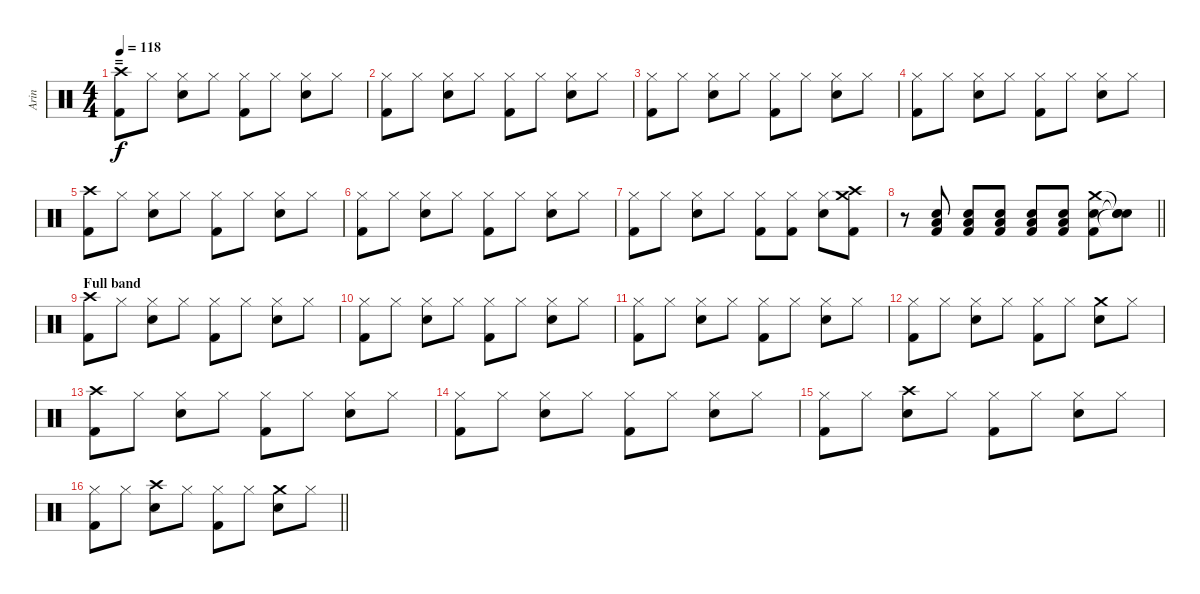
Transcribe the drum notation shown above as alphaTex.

\track ("Arin" "Arin") {instrument percussion}
\staff {score}
\articulation defaults
\ts (4 4)
\section ("" "=")
\tempo 118
\clef neutral
\ks c
("Crash high (hit)" "Kick (hit) 2").8{dy f} "Hi-Hat (closed)".8 ("Hi-Hat (closed)" "Electric Snare (hit)").8 "Hi-Hat (closed)".8 ("Hi-Hat (closed)" "Kick (hit) 2").8 "Hi-Hat (closed)".8 ("Hi-Hat (closed)" "Electric Snare (hit)").8 "Hi-Hat (closed)".8 |
("Hi-Hat (closed)" "Kick (hit) 2").8 "Hi-Hat (closed)".8 ("Hi-Hat (closed)" "Electric Snare (hit)").8 "Hi-Hat (closed)".8 ("Hi-Hat (closed)" "Kick (hit) 2").8 "Hi-Hat (closed)".8 ("Hi-Hat (closed)" "Electric Snare (hit)").8 "Hi-Hat (closed)".8 |
("Hi-Hat (closed)" "Kick (hit) 2").8 "Hi-Hat (closed)".8 ("Hi-Hat (closed)" "Electric Snare (hit)").8 "Hi-Hat (closed)".8 ("Hi-Hat (closed)" "Kick (hit) 2").8 "Hi-Hat (closed)".8 ("Hi-Hat (closed)" "Electric Snare (hit)").8 "Hi-Hat (closed)".8 |
("Hi-Hat (closed)" "Kick (hit) 2").8 "Hi-Hat (closed)".8 ("Hi-Hat (closed)" "Electric Snare (hit)").8 "Hi-Hat (closed)".8 ("Hi-Hat (closed)" "Kick (hit) 2").8 "Hi-Hat (closed)".8 ("Hi-Hat (closed)" "Electric Snare (hit)").8 "Hi-Hat (closed)".8 |
("Crash high (hit)" "Kick (hit) 2").8 "Hi-Hat (closed)".8 ("Hi-Hat (closed)" "Electric Snare (hit)").8 "Hi-Hat (closed)".8 ("Hi-Hat (closed)" "Kick (hit) 2").8 "Hi-Hat (closed)".8 ("Hi-Hat (closed)" "Electric Snare (hit)").8 "Hi-Hat (closed)".8 |
("Hi-Hat (closed)" "Kick (hit) 2").8 "Hi-Hat (closed)".8 ("Hi-Hat (closed)" "Electric Snare (hit)").8 "Hi-Hat (closed)".8 ("Hi-Hat (closed)" "Kick (hit) 2").8 "Hi-Hat (closed)".8 ("Hi-Hat (closed)" "Electric Snare (hit)").8 "Hi-Hat (closed)".8 |
("Hi-Hat (closed)" "Kick (hit) 2").8 "Hi-Hat (closed)".8 ("Hi-Hat (closed)" "Electric Snare (hit)").8 "Hi-Hat (closed)".8 ("Hi-Hat (closed)" "Kick (hit) 2").8 ("Hi-Hat (closed)" "Kick (hit) 2").8 ("Hi-Hat (closed)" "Electric Snare (hit)").8 ("Crash medium (hit)" "Crash high (hit)" "Kick (hit) 2").8 |
\barLineRight lightlight
r.8 ("Low Tom (hit)" "Electric Snare (hit)" "Kick (hit) 2").8 ("Low Tom (hit)" "Electric Snare (hit)" "Kick (hit) 2").8 ("Low Tom (hit)" "Electric Snare (hit)" "Kick (hit) 2").8 ("Low Tom (hit)" "Electric Snare (hit)" "Kick (hit) 2").8 ("Low Tom (hit)" "Electric Snare (hit)" "Kick (hit) 2").8 ("Crash medium (hit)" "Electric Snare (hit)" "Kick (hit) 2").8 ("Snare (hit)"{t} "Snare (hit)"{t} "Snare (hit)"{t}).8 |
\section ("" "Full band")
("Crash high (hit)" "Kick (hit) 2").8 "Hi-Hat (closed)".8 ("Hi-Hat (closed)" "Electric Snare (hit)").8 "Hi-Hat (closed)".8 ("Hi-Hat (closed)" "Kick (hit) 2").8 "Hi-Hat (closed)".8 ("Hi-Hat (closed)" "Electric Snare (hit)").8 "Hi-Hat (closed)".8 |
("Hi-Hat (closed)" "Kick (hit) 2").8 "Hi-Hat (closed)".8 ("Hi-Hat (closed)" "Electric Snare (hit)").8 "Hi-Hat (closed)".8 ("Hi-Hat (closed)" "Kick (hit) 2").8 "Hi-Hat (closed)".8 ("Hi-Hat (closed)" "Electric Snare (hit)").8 "Hi-Hat (closed)".8 |
("Hi-Hat (closed)" "Kick (hit) 2").8 "Hi-Hat (closed)".8 ("Hi-Hat (closed)" "Electric Snare (hit)").8 "Hi-Hat (closed)".8 ("Hi-Hat (closed)" "Kick (hit) 2").8 "Hi-Hat (closed)".8 ("Hi-Hat (closed)" "Electric Snare (hit)").8 "Hi-Hat (closed)".8 |
("Hi-Hat (closed)" "Kick (hit) 2").8 "Hi-Hat (closed)".8 ("Hi-Hat (closed)" "Electric Snare (hit)").8 "Hi-Hat (closed)".8 ("Hi-Hat (closed)" "Kick (hit) 2").8 "Hi-Hat (closed)".8 ("Crash medium (hit)" "Electric Snare (hit)").8 "Hi-Hat (closed)".8 |
("Crash high (hit)" "Kick (hit) 2").8 "Hi-Hat (closed)".8 ("Hi-Hat (closed)" "Electric Snare (hit)").8 "Hi-Hat (closed)".8 ("Hi-Hat (closed)" "Kick (hit) 2").8 "Hi-Hat (closed)".8 ("Hi-Hat (closed)" "Electric Snare (hit)").8 "Hi-Hat (closed)".8 |
("Hi-Hat (closed)" "Kick (hit) 2").8 "Hi-Hat (closed)".8 ("Hi-Hat (closed)" "Electric Snare (hit)").8 "Hi-Hat (closed)".8 ("Hi-Hat (closed)" "Kick (hit) 2").8 "Hi-Hat (closed)".8 ("Hi-Hat (closed)" "Electric Snare (hit)").8 "Hi-Hat (closed)".8 |
("Hi-Hat (closed)" "Kick (hit) 2").8 "Hi-Hat (closed)".8 ("Crash high (hit)" "Electric Snare (hit)").8 "Hi-Hat (closed)".8 ("Hi-Hat (closed)" "Kick (hit) 2").8 "Hi-Hat (closed)".8 ("Hi-Hat (closed)" "Electric Snare (hit)").8 "Hi-Hat (closed)".8 |
\barLineRight lightlight
("Hi-Hat (closed)" "Kick (hit) 2").8 "Hi-Hat (closed)".8 ("Crash high (hit)" "Electric Snare (hit)").8 "Hi-Hat (closed)".8 ("Hi-Hat (closed)" "Kick (hit) 2").8 "Hi-Hat (closed)".8 ("Crash medium (hit)" "Electric Snare (hit)").8 "Hi-Hat (closed)".8
